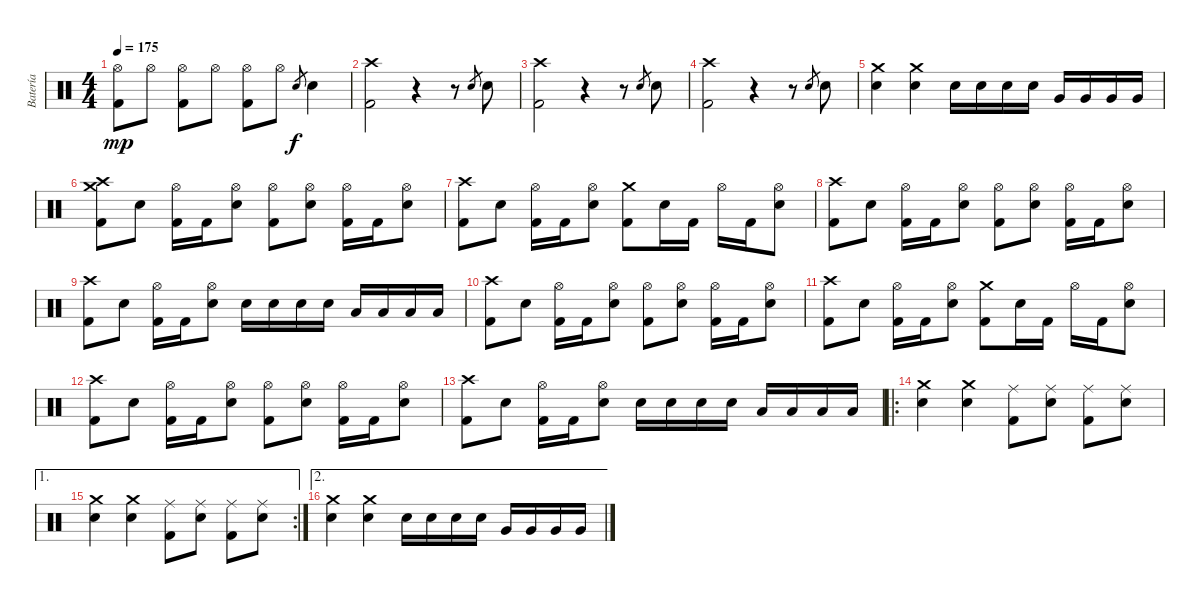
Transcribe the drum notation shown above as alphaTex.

\track ("Batería" "Batería") {instrument percussion}
\staff {score}
\articulation defaults
\ts (4 4)
\tempo 175
\clef neutral
\ks c
("Hi-Hat (open)" "Kick (hit) 2").8{dy mp} "Hi-Hat (open)".8 ("Hi-Hat (open)" "Kick (hit) 2").8 "Hi-Hat (open)".8 ("Hi-Hat (open)" "Kick (hit) 2").8 "Hi-Hat (open)".8 "Electric Snare (hit)".8{gr dy f} "Electric Snare (hit)".4 |
("Crash high (hit)" "Kick (hit) 2").2 r.4 r.8 "Electric Snare (hit)".8{gr} "Electric Snare (hit)".8 |
("Crash high (hit)" "Kick (hit) 2").2 r.4 r.8 "Electric Snare (hit)".8{gr} "Electric Snare (hit)".8 |
("Crash high (hit)" "Kick (hit) 2").2 r.4 r.8 "Electric Snare (hit)".8{gr} "Electric Snare (hit)".8 |
("Crash medium (hit)" "Electric Snare (hit)").4 ("Crash medium (hit)" "Electric Snare (hit)").4 "Electric Snare (hit)".16 "Electric Snare (hit)".16 "Electric Snare (hit)".16 "Electric Snare (hit)".16 "Very Low Tom (hit)".16 "Very Low Tom (hit)".16 "Very Low Tom (hit)".16 "Very Low Tom (hit)".16 |
("Crash high (hit)" "Crash medium (hit)" "Kick (hit) 2").8 "Electric Snare (hit)".8 ("Hi-Hat (open)" "Kick (hit) 2").16 "Kick (hit) 2".16 ("Hi-Hat (open)" "Electric Snare (hit)").8 ("Hi-Hat (open)" "Kick (hit) 2").8 ("Hi-Hat (open)" "Electric Snare (hit)").8 ("Hi-Hat (open)" "Kick (hit) 2").16 "Kick (hit) 2".16 ("Hi-Hat (open)" "Electric Snare (hit)").8 |
("Crash high (hit)" "Kick (hit) 2").8 "Electric Snare (hit)".8 ("Hi-Hat (open)" "Kick (hit) 2").16 "Kick (hit) 2".16 ("Hi-Hat (open)" "Electric Snare (hit)").8 ("Crash medium (hit)" "Kick (hit) 2").8 "Electric Snare (hit)".16 "Kick (hit) 2".16 "Hi-Hat (open)".16 "Kick (hit) 2".16 ("Hi-Hat (open)" "Electric Snare (hit)").8 |
("Crash high (hit)" "Kick (hit) 2").8 "Electric Snare (hit)".8 ("Hi-Hat (open)" "Kick (hit) 2").16 "Kick (hit) 2".16 ("Hi-Hat (open)" "Electric Snare (hit)").8 ("Hi-Hat (open)" "Kick (hit) 2").8 ("Hi-Hat (open)" "Electric Snare (hit)").8 ("Hi-Hat (open)" "Kick (hit) 2").16 "Kick (hit) 2".16 ("Hi-Hat (open)" "Electric Snare (hit)").8 |
("Crash high (hit)" "Kick (hit) 2").8 "Electric Snare (hit)".8 ("Hi-Hat (open)" "Kick (hit) 2").16 "Kick (hit) 2".16 ("Hi-Hat (open)" "Electric Snare (hit)").8 "Electric Snare (hit)".16 "Electric Snare (hit)".16 "Electric Snare (hit)".16 "Electric Snare (hit)".16 "Low Tom (hit)".16 "Low Tom (hit)".16 "Low Tom (hit)".16 "Low Tom (hit)".16 |
("Crash high (hit)" "Kick (hit) 2").8 "Electric Snare (hit)".8 ("Hi-Hat (open)" "Kick (hit) 2").16 "Kick (hit) 2".16 ("Hi-Hat (open)" "Electric Snare (hit)").8 ("Hi-Hat (open)" "Kick (hit) 2").8 ("Hi-Hat (open)" "Electric Snare (hit)").8 ("Hi-Hat (open)" "Kick (hit) 2").16 "Kick (hit) 2".16 ("Hi-Hat (open)" "Electric Snare (hit)").8 |
("Crash high (hit)" "Kick (hit) 2").8 "Electric Snare (hit)".8 ("Hi-Hat (open)" "Kick (hit) 2").16 "Kick (hit) 2".16 ("Hi-Hat (open)" "Electric Snare (hit)").8 ("Crash medium (hit)" "Kick (hit) 2").8 "Electric Snare (hit)".16 "Kick (hit) 2".16 "Hi-Hat (open)".16 "Kick (hit) 2".16 ("Hi-Hat (open)" "Electric Snare (hit)").8 |
("Crash high (hit)" "Kick (hit) 2").8 "Electric Snare (hit)".8 ("Hi-Hat (open)" "Kick (hit) 2").16 "Kick (hit) 2".16 ("Hi-Hat (open)" "Electric Snare (hit)").8 ("Hi-Hat (open)" "Kick (hit) 2").8 ("Hi-Hat (open)" "Electric Snare (hit)").8 ("Hi-Hat (open)" "Kick (hit) 2").16 "Kick (hit) 2".16 ("Hi-Hat (open)" "Electric Snare (hit)").8 |
("Crash high (hit)" "Kick (hit) 2").8 "Electric Snare (hit)".8 ("Hi-Hat (open)" "Kick (hit) 2").16 "Kick (hit) 2".16 ("Hi-Hat (open)" "Electric Snare (hit)").8 "Electric Snare (hit)".16 "Electric Snare (hit)".16 "Electric Snare (hit)".16 "Electric Snare (hit)".16 "Low Tom (hit)".16 "Low Tom (hit)".16 "Low Tom (hit)".16 "Low Tom (hit)".16 |
\ro
("Crash medium (hit)" "Electric Snare (hit)").4 ("Crash medium (hit)" "Electric Snare (hit)").4 ("Ride (middle)" "Kick (hit) 2").8 ("Ride (middle)" "Electric Snare (hit)").8 ("Ride (middle)" "Kick (hit) 2").8 ("Ride (middle)" "Electric Snare (hit)").8 |
\ae 1
\rc 2
("Crash medium (hit)" "Electric Snare (hit)").4 ("Crash medium (hit)" "Electric Snare (hit)").4 ("Ride (middle)" "Kick (hit) 2").8 ("Ride (middle)" "Electric Snare (hit)").8 ("Ride (middle)" "Kick (hit) 2").8 ("Ride (middle)" "Electric Snare (hit)").8 |
\ae 2
("Crash medium (hit)" "Electric Snare (hit)").4 ("Crash medium (hit)" "Electric Snare (hit)").4 "Electric Snare (hit)".16 "Electric Snare (hit)".16 "Electric Snare (hit)".16 "Electric Snare (hit)".16 "Very Low Tom (hit)".16 "Very Low Tom (hit)".16 "Very Low Tom (hit)".16 "Very Low Tom (hit)".16
